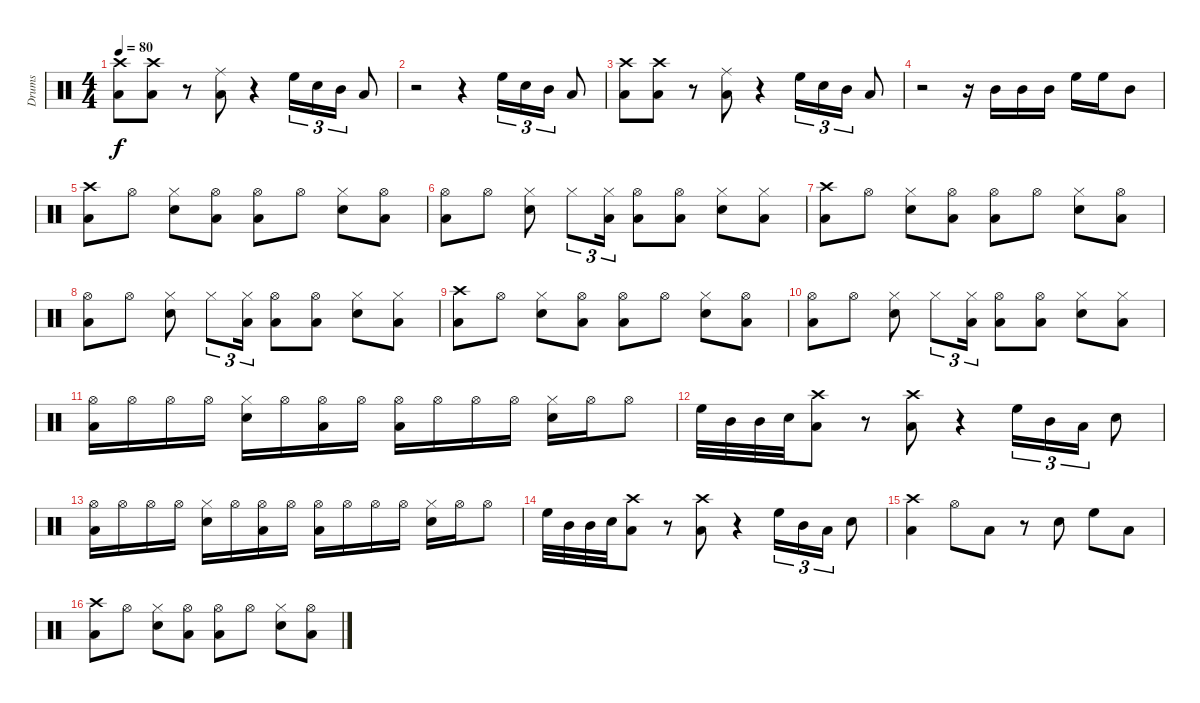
\track ("Drums" "Drums") {instrument percussion}
\staff {score}
\articulation defaults
\ts (4 4)
\tempo 80
\clef neutral
\ks c
("Crash high (hit)" "Low Floor Tom (hit)").8{dy f} ("Crash high (hit)" "Low Floor Tom (hit)").8 r.8 ("Ride (middle)" "Low Floor Tom (hit)").8 r.4 "High Floor Tom (hit)".16{tu (3 2)} "Snare (hit) 2".16{tu (3 2)} "Mid Tom (hit)".16{tu (3 2)} "Low Floor Tom (hit)".8 |
r.2 r.4 "High Floor Tom (hit)".16{tu (3 2)} "Snare (hit) 2".16{tu (3 2)} "Mid Tom (hit)".16{tu (3 2)} "Low Floor Tom (hit)".8 |
("Crash high (hit)" "Low Floor Tom (hit)").8 ("Crash high (hit)" "Low Floor Tom (hit)").8 r.8 ("Ride (middle)" "Low Floor Tom (hit)").8 r.4 "High Floor Tom (hit)".16{tu (3 2)} "Snare (hit) 2".16{tu (3 2)} "Mid Tom (hit)".16{tu (3 2)} "Low Floor Tom (hit)".8 |
r.2 r.16 "Mid Tom (hit)".16 "Mid Tom (hit)".16 "Mid Tom (hit)".16 "High Floor Tom (hit)".16 "High Floor Tom (hit)".16 "Mid Tom (hit)".8 |
("Crash high (hit)" "Low Floor Tom (hit)").8 "Hi-Hat (open)".8 ("Hi-Hat (closed)" "Snare (hit) 2").8 ("Hi-Hat (open)" "Low Floor Tom (hit)").8 ("Hi-Hat (open)" "Low Floor Tom (hit)").8 "Hi-Hat (open)".8 ("Hi-Hat (closed)" "Snare (hit) 2").8 ("Hi-Hat (open)" "Low Floor Tom (hit)").8 |
("Hi-Hat (open)" "Low Floor Tom (hit)").8 "Hi-Hat (open)".8 ("Hi-Hat (closed)" "Snare (hit) 2").8 "Hi-Hat (closed)".8{tu (3 2)} ("Hi-Hat (closed)" "Low Floor Tom (hit)").16{tu (3 2)} ("Hi-Hat (open)" "Low Floor Tom (hit)").8 ("Hi-Hat (open)" "Low Floor Tom (hit)").8 ("Hi-Hat (closed)" "Snare (hit) 2").8 ("Hi-Hat (closed)" "Low Floor Tom (hit)").8 |
("Crash high (hit)" "Low Floor Tom (hit)").8 "Hi-Hat (open)".8 ("Hi-Hat (closed)" "Snare (hit) 2").8 ("Hi-Hat (open)" "Low Floor Tom (hit)").8 ("Hi-Hat (open)" "Low Floor Tom (hit)").8 "Hi-Hat (open)".8 ("Hi-Hat (closed)" "Snare (hit) 2").8 ("Hi-Hat (open)" "Low Floor Tom (hit)").8 |
("Hi-Hat (open)" "Low Floor Tom (hit)").8 "Hi-Hat (open)".8 ("Hi-Hat (closed)" "Snare (hit) 2").8 "Hi-Hat (closed)".8{tu (3 2)} ("Hi-Hat (closed)" "Low Floor Tom (hit)").16{tu (3 2)} ("Hi-Hat (open)" "Low Floor Tom (hit)").8 ("Hi-Hat (open)" "Low Floor Tom (hit)").8 ("Hi-Hat (closed)" "Snare (hit) 2").8 ("Hi-Hat (closed)" "Low Floor Tom (hit)").8 |
("Crash high (hit)" "Low Floor Tom (hit)").8 "Hi-Hat (open)".8 ("Hi-Hat (closed)" "Snare (hit) 2").8 ("Hi-Hat (open)" "Low Floor Tom (hit)").8 ("Hi-Hat (open)" "Low Floor Tom (hit)").8 "Hi-Hat (open)".8 ("Hi-Hat (closed)" "Snare (hit) 2").8 ("Hi-Hat (open)" "Low Floor Tom (hit)").8 |
("Hi-Hat (open)" "Low Floor Tom (hit)").8 "Hi-Hat (open)".8 ("Hi-Hat (closed)" "Snare (hit) 2").8 "Hi-Hat (closed)".8{tu (3 2)} ("Hi-Hat (closed)" "Low Floor Tom (hit)").16{tu (3 2)} ("Hi-Hat (open)" "Low Floor Tom (hit)").8 ("Hi-Hat (open)" "Low Floor Tom (hit)").8 ("Hi-Hat (closed)" "Snare (hit) 2").8 ("Hi-Hat (closed)" "Low Floor Tom (hit)").8 |
("Hi-Hat (open)" "Low Floor Tom (hit)").16 "Hi-Hat (open)".16 "Hi-Hat (open)".16 "Hi-Hat (open)".16 ("Hi-Hat (closed)" "Snare (hit) 2").16 "Hi-Hat (open)".16 ("Hi-Hat (open)" "Low Floor Tom (hit)").16 "Hi-Hat (open)".16 ("Hi-Hat (open)" "Low Floor Tom (hit)").16 "Hi-Hat (open)".16 "Hi-Hat (open)".16 "Hi-Hat (open)".16 ("Hi-Hat (closed)" "Snare (hit) 2").16 "Hi-Hat (open)".16 "Hi-Hat (open)".8 |
"High Floor Tom (hit)".32 "Mid Tom (hit)".32 "Mid Tom (hit)".32 "Snare (hit) 2".32 ("Crash high (hit)" "Low Floor Tom (hit)").8 r.8 ("Crash high (hit)" "Low Floor Tom (hit)").8 r.4 "High Floor Tom (hit)".16{tu (3 2)} "Mid Tom (hit)".16{tu (3 2)} "Low Floor Tom (hit)".16{tu (3 2)} "Snare (hit) 2".8 |
("Hi-Hat (open)" "Low Floor Tom (hit)").16 "Hi-Hat (open)".16 "Hi-Hat (open)".16 "Hi-Hat (open)".16 ("Hi-Hat (closed)" "Snare (hit) 2").16 "Hi-Hat (open)".16 ("Hi-Hat (open)" "Low Floor Tom (hit)").16 "Hi-Hat (open)".16 ("Hi-Hat (open)" "Low Floor Tom (hit)").16 "Hi-Hat (open)".16 "Hi-Hat (open)".16 "Hi-Hat (open)".16 ("Hi-Hat (closed)" "Snare (hit) 2").16 "Hi-Hat (open)".16 "Hi-Hat (open)".8 |
"High Floor Tom (hit)".32 "Mid Tom (hit)".32 "Mid Tom (hit)".32 "Snare (hit) 2".32 ("Crash high (hit)" "Low Floor Tom (hit)").8 r.8 ("Crash high (hit)" "Low Floor Tom (hit)").8 r.4 "High Floor Tom (hit)".16{tu (3 2)} "Mid Tom (hit)".16{tu (3 2)} "Low Floor Tom (hit)".16{tu (3 2)} "Snare (hit) 2".8 |
("Crash high (hit)" "Low Floor Tom (hit)").4 "Hi-Hat (open)".8 "Low Floor Tom (hit)".8 r.8 "Snare (hit) 2".8 "High Floor Tom (hit)".8 "Low Floor Tom (hit)".8 |
("Crash high (hit)" "Low Floor Tom (hit)").8 "Hi-Hat (open)".8 ("Hi-Hat (closed)" "Snare (hit) 2").8 ("Hi-Hat (open)" "Low Floor Tom (hit)").8 ("Hi-Hat (open)" "Low Floor Tom (hit)").8 "Hi-Hat (open)".8 ("Hi-Hat (closed)" "Snare (hit) 2").8 ("Hi-Hat (open)" "Low Floor Tom (hit)").8
